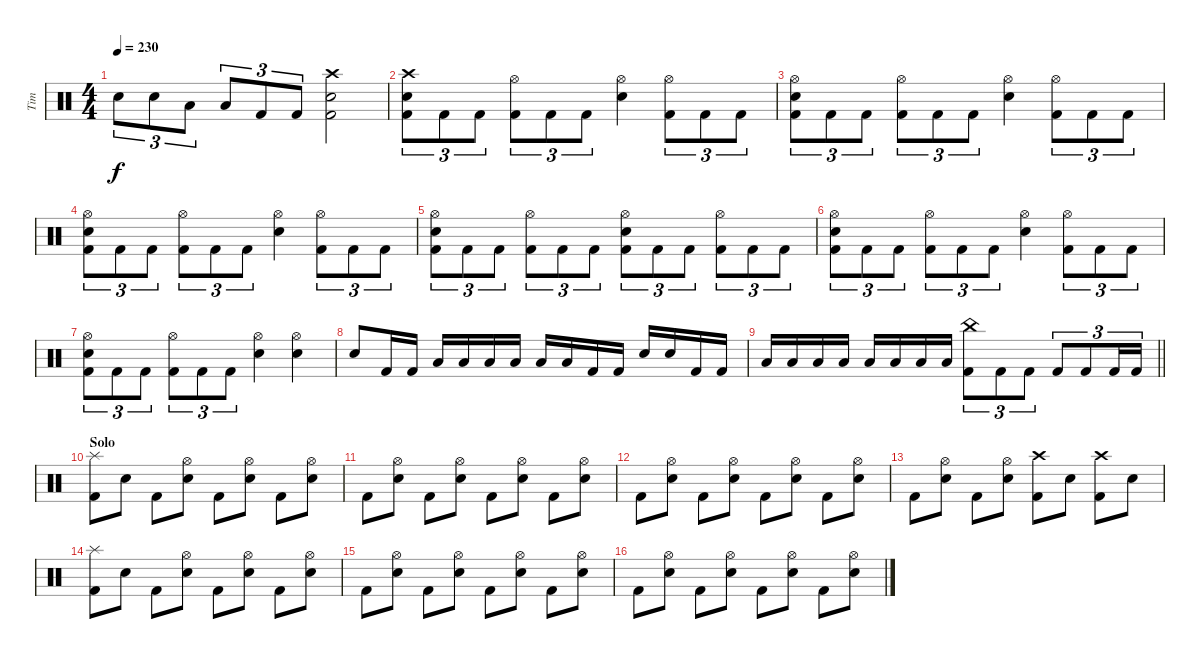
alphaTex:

\track ("Tim" "Tim") {instrument percussion}
\staff {score}
\articulation defaults
\ts (4 4)
\tempo 230
\clef neutral
\ks c "Snare (hit) 2".8{tu (3 2) dy f} "Snare (hit) 2".8{tu (3 2)} "Low Floor Tom (hit)".8{tu (3 2)} "Low Floor Tom (hit)".8{tu (3 2)} "Kick (hit) 2".8{tu (3 2)} "Kick (hit) 2".8{tu (3 2)}
("Crash high (hit)" "Snare (hit) 2" "Kick (hit) 2").2 |
("Crash high (hit)" "Snare (hit) 2" "Kick (hit) 2").8{tu (3 2)} "Kick (hit) 2".8{tu (3 2)} "Kick (hit) 2".8{tu (3 2)} ("Hi-Hat (open)" "Kick (hit) 2").8{tu (3 2)} "Kick (hit) 2".8{tu (3 2)} "Kick (hit) 2".8{tu (3 2)} ("Hi-Hat (open)" "Snare (hit) 2").4 ("Hi-Hat (open)" "Kick (hit) 2").8{tu (3 2)} "Kick (hit) 2".8{tu (3 2)} "Kick (hit) 2".8{tu (3 2)} |
("Hi-Hat (open)" "Snare (hit) 2" "Kick (hit) 2").8{tu (3 2)} "Kick (hit) 2".8{tu (3 2)} "Kick (hit) 2".8{tu (3 2)} ("Hi-Hat (open)" "Kick (hit) 2").8{tu (3 2)} "Kick (hit) 2".8{tu (3 2)} "Kick (hit) 2".8{tu (3 2)} ("Hi-Hat (open)" "Snare (hit) 2").4 ("Hi-Hat (open)" "Kick (hit) 2").8{tu (3 2)} "Kick (hit) 2".8{tu (3 2)} "Kick (hit) 2".8{tu (3 2)} |
("Hi-Hat (open)" "Snare (hit) 2" "Kick (hit) 2").8{tu (3 2)} "Kick (hit) 2".8{tu (3 2)} "Kick (hit) 2".8{tu (3 2)} ("Hi-Hat (open)" "Kick (hit) 2").8{tu (3 2)} "Kick (hit) 2".8{tu (3 2)} "Kick (hit) 2".8{tu (3 2)} ("Hi-Hat (open)" "Snare (hit) 2").4 ("Hi-Hat (open)" "Kick (hit) 2").8{tu (3 2)} "Kick (hit) 2".8{tu (3 2)} "Kick (hit) 2".8{tu (3 2)} |
("Hi-Hat (open)" "Snare (hit) 2" "Kick (hit) 2").8{tu (3 2)} "Kick (hit) 2".8{tu (3 2)} "Kick (hit) 2".8{tu (3 2)} ("Hi-Hat (open)" "Kick (hit) 2").8{tu (3 2)} "Kick (hit) 2".8{tu (3 2)} "Kick (hit) 2".8{tu (3 2)} ("Kick (hit) 2" "Hi-Hat (open)" "Snare (hit) 2").8{tu (3 2)} "Kick (hit) 2".8{tu (3 2)} "Kick (hit) 2".8{tu (3 2)} ("Hi-Hat (open)" "Kick (hit) 2").8{tu (3 2)} "Kick (hit) 2".8{tu (3 2)} "Kick (hit) 2".8{tu (3 2)} |
("Hi-Hat (open)" "Snare (hit) 2" "Kick (hit) 2").8{tu (3 2)} "Kick (hit) 2".8{tu (3 2)} "Kick (hit) 2".8{tu (3 2)} ("Hi-Hat (open)" "Kick (hit) 2").8{tu (3 2)} "Kick (hit) 2".8{tu (3 2)} "Kick (hit) 2".8{tu (3 2)} ("Hi-Hat (open)" "Snare (hit) 2").4 ("Hi-Hat (open)" "Kick (hit) 2").8{tu (3 2)} "Kick (hit) 2".8{tu (3 2)} "Kick (hit) 2".8{tu (3 2)} |
("Hi-Hat (open)" "Snare (hit) 2" "Kick (hit) 2").8{tu (3 2)} "Kick (hit) 2".8{tu (3 2)} "Kick (hit) 2".8{tu (3 2)} ("Hi-Hat (open)" "Kick (hit) 2").8{tu (3 2)} "Kick (hit) 2".8{tu (3 2)} "Kick (hit) 2".8{tu (3 2)} ("Hi-Hat (open)" "Snare (hit) 2").4 ("Hi-Hat (open)" "Snare (hit) 2").4 |
"Snare (hit) 2".8 "Kick (hit) 2".16 "Kick (hit) 2".16 "Low Tom (hit)".16 "Low Tom (hit)".16 "Low Tom (hit)".16 "Low Floor Tom (hit)".16 "Low Floor Tom (hit)".16 "Low Floor Tom (hit)".16 "Kick (hit) 2".16 "Kick (hit) 2".16 "Snare (hit) 2".16 "Snare (hit) 2".16 "Kick (hit) 2".16 "Kick (hit) 2".16 |
\barLineRight lightlight "Low Tom (hit)".16 "Low Tom (hit)".16 "Low Tom (hit)".16 "Low Tom (hit)".16 "Low Floor Tom (hit)".16 "Low Floor Tom (hit)".16 "Low Floor Tom (hit)".16 "Low Floor Tom (hit)".16
("China (hit)" "Kick (hit) 2").8{tu (3 2)} "Kick (hit) 2".8{tu (3 2)} "Kick (hit) 2".8{tu (3 2)} "Kick (hit) 2".8{tu (3 2)} "Kick (hit) 2".8{tu (3 2)} "Kick (hit) 2".16{tu (3 2)} "Kick (hit) 2".16{tu (3 2)} |
\section ("" "Solo")
("Splash (hit)" "Kick (hit) 2").8 "Snare (hit) 2".8 "Kick (hit) 2".8 ("Hi-Hat (open)" "Snare (hit) 2").8 "Kick (hit) 2".8 ("Hi-Hat (open)" "Snare (hit) 2").8 "Kick (hit) 2".8 ("Hi-Hat (open)" "Snare (hit) 2").8 |
"Kick (hit) 2".8 ("Hi-Hat (open)" "Snare (hit) 2").8 "Kick (hit) 2".8 ("Hi-Hat (open)" "Snare (hit) 2").8 "Kick (hit) 2".8 ("Hi-Hat (open)" "Snare (hit) 2").8 "Kick (hit) 2".8 ("Hi-Hat (open)" "Snare (hit) 2").8 |
"Kick (hit) 2".8 ("Hi-Hat (open)" "Snare (hit) 2").8 "Kick (hit) 2".8 ("Hi-Hat (open)" "Snare (hit) 2").8 "Kick (hit) 2".8 ("Hi-Hat (open)" "Snare (hit) 2").8 "Kick (hit) 2".8 ("Hi-Hat (open)" "Snare (hit) 2").8 |
"Kick (hit) 2".8 ("Hi-Hat (open)" "Snare (hit) 2").8 "Kick (hit) 2".8 ("Hi-Hat (open)" "Snare (hit) 2").8 ("Crash high (hit)" "Kick (hit) 2").8 "Snare (hit) 2".8 ("Crash high (hit)" "Kick (hit) 2").8 "Snare (hit) 2".8 |
("Splash (hit)" "Kick (hit) 2").8 "Snare (hit) 2".8 "Kick (hit) 2".8 ("Hi-Hat (open)" "Snare (hit) 2").8 "Kick (hit) 2".8 ("Hi-Hat (open)" "Snare (hit) 2").8 "Kick (hit) 2".8 ("Hi-Hat (open)" "Snare (hit) 2").8 |
"Kick (hit) 2".8 ("Hi-Hat (open)" "Snare (hit) 2").8 "Kick (hit) 2".8 ("Hi-Hat (open)" "Snare (hit) 2").8 "Kick (hit) 2".8 ("Hi-Hat (open)" "Snare (hit) 2").8 "Kick (hit) 2".8 ("Hi-Hat (open)" "Snare (hit) 2").8 |
"Kick (hit) 2".8 ("Hi-Hat (open)" "Snare (hit) 2").8 "Kick (hit) 2".8 ("Hi-Hat (open)" "Snare (hit) 2").8 "Kick (hit) 2".8 ("Hi-Hat (open)" "Snare (hit) 2").8 "Kick (hit) 2".8 ("Hi-Hat (open)" "Snare (hit) 2").8
